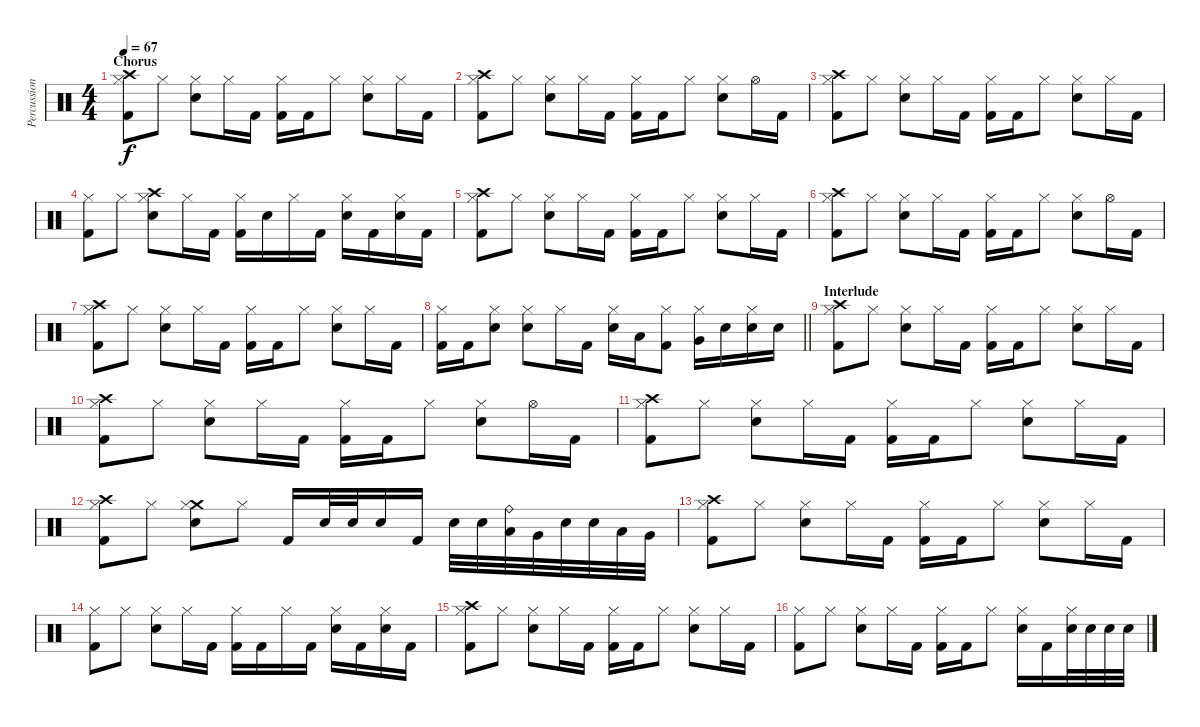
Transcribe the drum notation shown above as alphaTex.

\track ("Percussion" "Percussion") {instrument percussion}
\staff {score}
\articulation defaults
\ts (4 4)
\section ("" "Chorus")
\tempo 67
\clef neutral
\ks c
("Crash high (hit)" "Hi-Hat (closed)" "Kick (hit) 2").8{dy f} "Hi-Hat (closed)".8 ("Hi-Hat (closed)" "Snare (hit) 2").8 "Hi-Hat (closed)".16 "Kick (hit) 2".16 ("Hi-Hat (closed)" "Kick (hit) 2").16 "Kick (hit) 2".16 "Hi-Hat (closed)".8 ("Hi-Hat (closed)" "Snare (hit) 2").8 "Hi-Hat (closed)".16 "Kick (hit) 2".16 |
("Crash high (hit)" "Hi-Hat (closed)" "Kick (hit) 2").8 "Hi-Hat (closed)".8 ("Hi-Hat (closed)" "Snare (hit) 2").8 "Hi-Hat (closed)".16 "Kick (hit) 2".16 ("Hi-Hat (closed)" "Kick (hit) 2").16 "Kick (hit) 2".16 "Hi-Hat (closed)".8 ("Hi-Hat (closed)" "Snare (hit) 2").8 "Hi-Hat (open)".16 "Kick (hit) 2".16 |
("Crash high (hit)" "Hi-Hat (closed)" "Kick (hit) 2").8 "Hi-Hat (closed)".8 ("Hi-Hat (closed)" "Snare (hit) 2").8 "Hi-Hat (closed)".16 "Kick (hit) 2".16 ("Hi-Hat (closed)" "Kick (hit) 2").16 "Kick (hit) 2".16 "Hi-Hat (closed)".8 ("Hi-Hat (closed)" "Snare (hit) 2").8 "Hi-Hat (closed)".16 "Kick (hit) 2".16 |
("Hi-Hat (closed)" "Kick (hit) 2").8 "Hi-Hat (closed)".8 ("Crash high (hit)" "Hi-Hat (closed)" "Snare (hit) 2").8 "Hi-Hat (closed)".16 "Kick (hit) 2".16 ("Hi-Hat (closed)" "Kick (hit) 2").16 "Snare (hit) 2".16 "Hi-Hat (closed)".16 "Kick (hit) 2".16 ("Hi-Hat (closed)" "Snare (hit) 2").16 "Kick (hit) 2".16 ("Hi-Hat (closed)" "Snare (hit) 2").16 "Kick (hit) 2".16 |
("Crash high (hit)" "Hi-Hat (closed)" "Kick (hit) 2").8 "Hi-Hat (closed)".8 ("Hi-Hat (closed)" "Snare (hit) 2").8 "Hi-Hat (closed)".16 "Kick (hit) 2".16 ("Hi-Hat (closed)" "Kick (hit) 2").16 "Kick (hit) 2".16 "Hi-Hat (closed)".8 ("Hi-Hat (closed)" "Snare (hit) 2").8 "Hi-Hat (closed)".16 "Kick (hit) 2".16 |
("Crash high (hit)" "Hi-Hat (closed)" "Kick (hit) 2").8 "Hi-Hat (closed)".8 ("Hi-Hat (closed)" "Snare (hit) 2").8 "Hi-Hat (closed)".16 "Kick (hit) 2".16 ("Hi-Hat (closed)" "Kick (hit) 2").16 "Kick (hit) 2".16 "Hi-Hat (closed)".8 ("Hi-Hat (closed)" "Snare (hit) 2").8 "Hi-Hat (open)".16 "Kick (hit) 2".16 |
("Crash high (hit)" "Hi-Hat (closed)" "Kick (hit) 2").8 "Hi-Hat (closed)".8 ("Hi-Hat (closed)" "Snare (hit) 2").8 "Hi-Hat (closed)".16 "Kick (hit) 2".16 ("Hi-Hat (closed)" "Kick (hit) 2").16 "Kick (hit) 2".16 "Hi-Hat (closed)".8 ("Hi-Hat (closed)" "Snare (hit) 2").8 "Hi-Hat (closed)".16 "Kick (hit) 2".16 |
\barLineRight lightlight
("Hi-Hat (closed)" "Kick (hit) 2").16 "Kick (hit) 2".16 ("Hi-Hat (closed)" "Snare (hit) 2").8 ("Hi-Hat (closed)" "Snare (hit) 2").8 "Hi-Hat (closed)".16 "Kick (hit) 2".16 ("Hi-Hat (closed)" "Snare (hit) 2").16 "Low Tom (hit)".16 ("Hi-Hat (closed)" "Kick (hit) 2").8 ("Hi-Hat (closed)" "Very Low Tom (hit)").16 "Snare (hit) 2".16 ("Hi-Hat (closed)" "Snare (hit) 2").16 "Snare (hit) 2".16 |
\section ("" "Interlude")
("Crash high (hit)" "Hi-Hat (closed)" "Kick (hit) 2").8 "Hi-Hat (closed)".8 ("Hi-Hat (closed)" "Snare (hit) 2").8 "Hi-Hat (closed)".16 "Kick (hit) 2".16 ("Hi-Hat (closed)" "Kick (hit) 2").16 "Kick (hit) 2".16 "Hi-Hat (closed)".8 ("Hi-Hat (closed)" "Snare (hit) 2").8 "Hi-Hat (closed)".16 "Kick (hit) 2".16 |
("Crash high (hit)" "Hi-Hat (closed)" "Kick (hit) 2").8 "Hi-Hat (closed)".8 ("Hi-Hat (closed)" "Snare (hit) 2").8 "Hi-Hat (closed)".16 "Kick (hit) 2".16 ("Hi-Hat (closed)" "Kick (hit) 2").16 "Kick (hit) 2".16 "Hi-Hat (closed)".8 ("Hi-Hat (closed)" "Snare (hit) 2").8 "Hi-Hat (open)".16 "Kick (hit) 2".16 |
("Crash high (hit)" "Hi-Hat (closed)" "Kick (hit) 2").8 "Hi-Hat (closed)".8 ("Hi-Hat (closed)" "Snare (hit) 2").8 "Hi-Hat (closed)".16 "Kick (hit) 2".16 ("Hi-Hat (closed)" "Kick (hit) 2").16 "Kick (hit) 2".16 "Hi-Hat (closed)".8 ("Hi-Hat (closed)" "Snare (hit) 2").8 "Hi-Hat (closed)".16 "Kick (hit) 2".16 |
("Crash high (hit)" "Hi-Hat (closed)" "Kick (hit) 2").8 "Hi-Hat (closed)".8 ("Crash medium (hit)" "Hi-Hat (closed)" "Snare (hit) 2").8 "Hi-Hat (closed)".8 "Kick (hit) 2".16 "Snare (hit) 2".32 "Snare (hit) 2".32 "Snare (hit) 2".16 "Kick (hit) 2".16 "Snare (hit) 2".32 "Snare (hit) 2".32 ("Ride (bell)" "Low Tom (hit)").32 "Very Low Tom (hit)".32 "Snare (hit) 2".32 "Snare (hit) 2".32 "Low Tom (hit)".32 "Very Low Tom (hit)".32 |
("Crash high (hit)" "Hi-Hat (closed)" "Kick (hit) 2").8 "Hi-Hat (closed)".8 ("Hi-Hat (closed)" "Snare (hit) 2").8 "Hi-Hat (closed)".16 "Kick (hit) 2".16 ("Hi-Hat (closed)" "Kick (hit) 2").16 "Kick (hit) 2".16 "Hi-Hat (closed)".8 ("Hi-Hat (closed)" "Snare (hit) 2").8 "Hi-Hat (closed)".16 "Kick (hit) 2".16 |
("Hi-Hat (closed)" "Kick (hit) 2").8 "Hi-Hat (closed)".8 ("Hi-Hat (closed)" "Snare (hit) 2").8 "Hi-Hat (closed)".16 "Kick (hit) 2".16 ("Hi-Hat (closed)" "Kick (hit) 2").16 "Kick (hit) 2".16 "Hi-Hat (closed)".16 "Kick (hit) 2".16 ("Hi-Hat (closed)" "Snare (hit) 2").16 "Kick (hit) 2".16 ("Hi-Hat (closed)" "Snare (hit) 2").16 "Kick (hit) 2".16 |
("Crash high (hit)" "Hi-Hat (closed)" "Kick (hit) 2").8 "Hi-Hat (closed)".8 ("Hi-Hat (closed)" "Snare (hit) 2").8 "Hi-Hat (closed)".16 "Kick (hit) 2".16 ("Hi-Hat (closed)" "Kick (hit) 2").16 "Kick (hit) 2".16 "Hi-Hat (closed)".8 ("Hi-Hat (closed)" "Snare (hit) 2").8 "Hi-Hat (closed)".16 "Kick (hit) 2".16 |
("Hi-Hat (closed)" "Kick (hit) 2").8 "Hi-Hat (closed)".8 ("Hi-Hat (closed)" "Snare (hit) 2").8 "Hi-Hat (closed)".16 "Kick (hit) 2".16 ("Hi-Hat (closed)" "Kick (hit) 2").16 "Kick (hit) 2".16 "Hi-Hat (closed)".8 ("Hi-Hat (closed)" "Snare (hit) 2").16 "Kick (hit) 2".16 ("Hi-Hat (closed)" "Snare (hit) 2").32 "Snare (hit) 2".32 "Snare (hit) 2".32 "Snare (hit) 2".32
